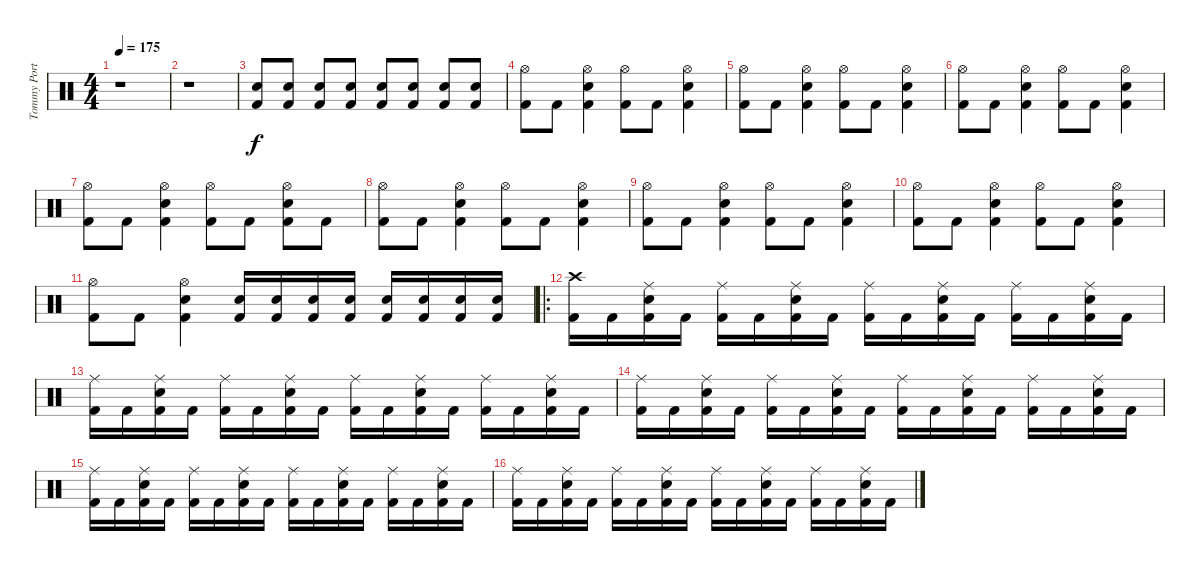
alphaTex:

\track ("Tommy Portimo" "Tommy Port") {instrument percussion}
\staff {score}
\articulation defaults
\ts (4 4)
\tempo 175
\clef neutral
\ks c
r.1{dy f} |
r.1 |
("Electric Snare (hit)" "Kick (hit) 2").8{volume 14} ("Electric Snare (hit)" "Kick (hit) 2").8 ("Electric Snare (hit)" "Kick (hit) 2").8 ("Electric Snare (hit)" "Kick (hit) 2").8 ("Electric Snare (hit)" "Kick (hit) 2").8 ("Electric Snare (hit)" "Kick (hit) 2").8 ("Electric Snare (hit)" "Kick (hit) 2").8 ("Electric Snare (hit)" "Kick (hit) 2").8 |
("Hi-Hat (open)" "Kick (hit) 2").8 "Kick (hit) 2".8 ("Hi-Hat (open)" "Electric Snare (hit)" "Kick (hit) 2").4 ("Hi-Hat (open)" "Kick (hit) 2").8 "Kick (hit) 2".8 ("Hi-Hat (open)" "Electric Snare (hit)" "Kick (hit) 2").4 |
("Hi-Hat (open)" "Kick (hit) 2").8 "Kick (hit) 2".8 ("Hi-Hat (open)" "Electric Snare (hit)" "Kick (hit) 2").4 ("Hi-Hat (open)" "Kick (hit) 2").8 "Kick (hit) 2".8 ("Hi-Hat (open)" "Electric Snare (hit)" "Kick (hit) 2").4 |
("Hi-Hat (open)" "Kick (hit) 2").8 "Kick (hit) 2".8 ("Hi-Hat (open)" "Electric Snare (hit)" "Kick (hit) 2").4 ("Hi-Hat (open)" "Kick (hit) 2").8 "Kick (hit) 2".8 ("Hi-Hat (open)" "Electric Snare (hit)" "Kick (hit) 2").4 |
("Hi-Hat (open)" "Kick (hit) 2").8 "Kick (hit) 2".8 ("Hi-Hat (open)" "Electric Snare (hit)" "Kick (hit) 2").4 ("Hi-Hat (open)" "Kick (hit) 2").8 "Kick (hit) 2".8 ("Hi-Hat (open)" "Electric Snare (hit)" "Kick (hit) 2").8 "Kick (hit) 2".8 |
("Hi-Hat (open)" "Kick (hit) 2").8 "Kick (hit) 2".8 ("Hi-Hat (open)" "Electric Snare (hit)" "Kick (hit) 2").4 ("Hi-Hat (open)" "Kick (hit) 2").8 "Kick (hit) 2".8 ("Hi-Hat (open)" "Electric Snare (hit)" "Kick (hit) 2").4 |
("Hi-Hat (open)" "Kick (hit) 2").8 "Kick (hit) 2".8 ("Hi-Hat (open)" "Electric Snare (hit)" "Kick (hit) 2").4 ("Hi-Hat (open)" "Kick (hit) 2").8 "Kick (hit) 2".8 ("Hi-Hat (open)" "Electric Snare (hit)" "Kick (hit) 2").4 |
("Hi-Hat (open)" "Kick (hit) 2").8 "Kick (hit) 2".8 ("Hi-Hat (open)" "Electric Snare (hit)" "Kick (hit) 2").4 ("Hi-Hat (open)" "Kick (hit) 2").8 "Kick (hit) 2".8 ("Hi-Hat (open)" "Electric Snare (hit)" "Kick (hit) 2").4 |
("Hi-Hat (open)" "Kick (hit) 2").8 "Kick (hit) 2".8 ("Hi-Hat (open)" "Electric Snare (hit)" "Kick (hit) 2").4 ("Electric Snare (hit)" "Kick (hit) 2").16 ("Electric Snare (hit)" "Kick (hit) 2").16 ("Electric Snare (hit)" "Kick (hit) 2").16 ("Electric Snare (hit)" "Kick (hit) 2").16 ("Electric Snare (hit)" "Kick (hit) 2").16 ("Electric Snare (hit)" "Kick (hit) 2").16 ("Electric Snare (hit)" "Kick (hit) 2").16 ("Electric Snare (hit)" "Kick (hit) 2").16 |
\ro
("Crash high (hit)" "Kick (hit) 2").16 "Kick (hit) 2".16 ("Ride (middle)" "Electric Snare (hit)" "Kick (hit) 2").16 "Kick (hit) 2".16 ("Ride (middle)" "Kick (hit) 2").16 "Kick (hit) 2".16 ("Ride (middle)" "Electric Snare (hit)" "Kick (hit) 2").16 "Kick (hit) 2".16 ("Ride (middle)" "Kick (hit) 2").16 "Kick (hit) 2".16 ("Ride (middle)" "Electric Snare (hit)" "Kick (hit) 2").16 "Kick (hit) 2".16 ("Ride (middle)" "Kick (hit) 2").16 "Kick (hit) 2".16 ("Ride (middle)" "Electric Snare (hit)" "Kick (hit) 2").16 "Kick (hit) 2".16 |
("Ride (middle)" "Kick (hit) 2").16 "Kick (hit) 2".16 ("Ride (middle)" "Electric Snare (hit)" "Kick (hit) 2").16 "Kick (hit) 2".16 ("Ride (middle)" "Kick (hit) 2").16 "Kick (hit) 2".16 ("Ride (middle)" "Electric Snare (hit)" "Kick (hit) 2").16 "Kick (hit) 2".16 ("Ride (middle)" "Kick (hit) 2").16 "Kick (hit) 2".16 ("Ride (middle)" "Electric Snare (hit)" "Kick (hit) 2").16 "Kick (hit) 2".16 ("Ride (middle)" "Kick (hit) 2").16 "Kick (hit) 2".16 ("Ride (middle)" "Electric Snare (hit)" "Kick (hit) 2").16 "Kick (hit) 2".16 |
("Ride (middle)" "Kick (hit) 2").16 "Kick (hit) 2".16 ("Ride (middle)" "Electric Snare (hit)" "Kick (hit) 2").16 "Kick (hit) 2".16 ("Ride (middle)" "Kick (hit) 2").16 "Kick (hit) 2".16 ("Ride (middle)" "Electric Snare (hit)" "Kick (hit) 2").16 "Kick (hit) 2".16 ("Ride (middle)" "Kick (hit) 2").16 "Kick (hit) 2".16 ("Ride (middle)" "Electric Snare (hit)" "Kick (hit) 2").16 "Kick (hit) 2".16 ("Ride (middle)" "Kick (hit) 2").16 "Kick (hit) 2".16 ("Ride (middle)" "Electric Snare (hit)" "Kick (hit) 2").16 "Kick (hit) 2".16 |
("Ride (middle)" "Kick (hit) 2").16 "Kick (hit) 2".16 ("Ride (middle)" "Electric Snare (hit)" "Kick (hit) 2").16 "Kick (hit) 2".16 ("Ride (middle)" "Kick (hit) 2").16 "Kick (hit) 2".16 ("Ride (middle)" "Electric Snare (hit)" "Kick (hit) 2").16 "Kick (hit) 2".16 ("Ride (middle)" "Kick (hit) 2").16 "Kick (hit) 2".16 ("Ride (middle)" "Electric Snare (hit)" "Kick (hit) 2").16 "Kick (hit) 2".16 ("Ride (middle)" "Kick (hit) 2").16 "Kick (hit) 2".16 ("Ride (middle)" "Electric Snare (hit)" "Kick (hit) 2").16 "Kick (hit) 2".16 |
("Ride (middle)" "Kick (hit) 2").16 "Kick (hit) 2".16 ("Ride (middle)" "Electric Snare (hit)" "Kick (hit) 2").16 "Kick (hit) 2".16 ("Ride (middle)" "Kick (hit) 2").16 "Kick (hit) 2".16 ("Ride (middle)" "Electric Snare (hit)" "Kick (hit) 2").16 "Kick (hit) 2".16 ("Ride (middle)" "Kick (hit) 2").16 "Kick (hit) 2".16 ("Ride (middle)" "Electric Snare (hit)" "Kick (hit) 2").16 "Kick (hit) 2".16 ("Ride (middle)" "Kick (hit) 2").16 "Kick (hit) 2".16 ("Ride (middle)" "Electric Snare (hit)" "Kick (hit) 2").16 "Kick (hit) 2".16
